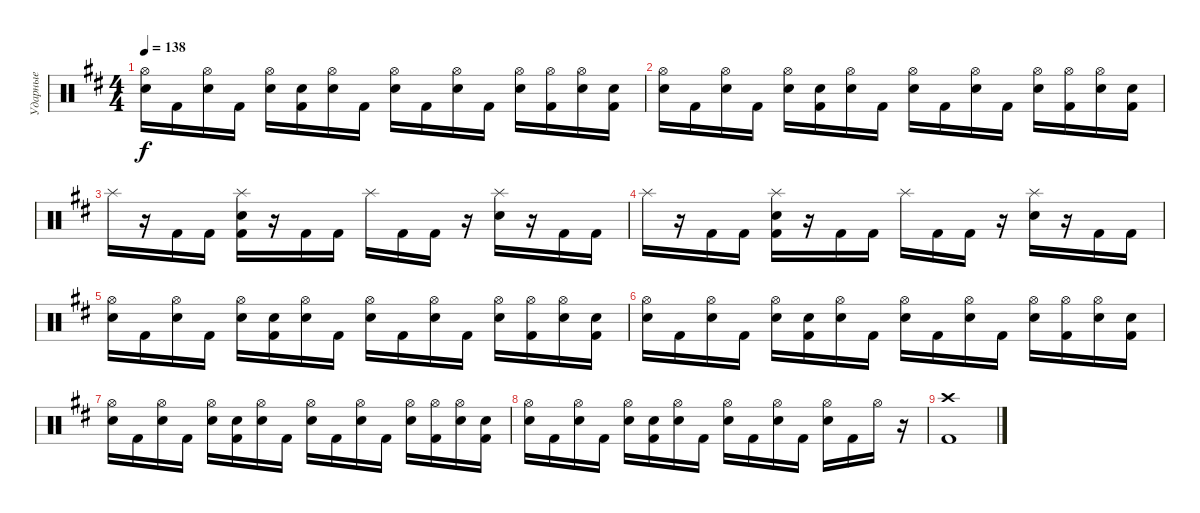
\track ("Ударные" "Ударные") {instrument percussion}
\staff {score}
\articulation defaults
\ts (4 4)
\tempo 138
\clef neutral
\ks bminor
("Electric Snare (hit)" "Hi-Hat (open)").16{dy f} "Kick (hit) 2".16 ("Electric Snare (hit)" "Hi-Hat (open)").16 "Kick (hit) 2".16 ("Electric Snare (hit)" "Hi-Hat (open)").16 ("Kick (hit) 2" "Electric Snare (hit)").16 ("Electric Snare (hit)" "Hi-Hat (open)").16 "Kick (hit) 2".16 ("Electric Snare (hit)" "Hi-Hat (open)").16 "Kick (hit) 2".16 ("Electric Snare (hit)" "Hi-Hat (open)").16 "Kick (hit) 2".16 ("Electric Snare (hit)" "Hi-Hat (open)").16 ("Kick (hit) 2" "Hi-Hat (open)").16 ("Electric Snare (hit)" "Hi-Hat (open)").16 ("Kick (hit) 2" "Electric Snare (hit)").16 |
("Electric Snare (hit)" "Hi-Hat (open)").16 "Kick (hit) 2".16 ("Electric Snare (hit)" "Hi-Hat (open)").16 "Kick (hit) 2".16 ("Electric Snare (hit)" "Hi-Hat (open)").16 ("Kick (hit) 2" "Electric Snare (hit)").16 ("Electric Snare (hit)" "Hi-Hat (open)").16 "Kick (hit) 2".16 ("Electric Snare (hit)" "Hi-Hat (open)").16 "Kick (hit) 2".16 ("Electric Snare (hit)" "Hi-Hat (open)").16 "Kick (hit) 2".16 ("Electric Snare (hit)" "Hi-Hat (open)").16 ("Kick (hit) 2" "Hi-Hat (open)").16 ("Electric Snare (hit)" "Hi-Hat (open)").16 ("Kick (hit) 2" "Electric Snare (hit)").16 |
"Splash (hit)".16 r.16 "Kick (hit) 2".16 "Kick (hit) 2".16 ("Splash (hit)" "Electric Snare (hit)" "Kick (hit) 2").16 r.16 "Kick (hit) 2".16 "Kick (hit) 2".16 "Splash (hit)".16 "Kick (hit) 2".16 "Kick (hit) 2".16 r.16 ("Splash (hit)" "Electric Snare (hit)").16 r.16 "Kick (hit) 2".16 "Kick (hit) 2".16 |
"Splash (hit)".16 r.16 "Kick (hit) 2".16 "Kick (hit) 2".16 ("Splash (hit)" "Electric Snare (hit)" "Kick (hit) 2").16 r.16 "Kick (hit) 2".16 "Kick (hit) 2".16 "Splash (hit)".16 "Kick (hit) 2".16 "Kick (hit) 2".16 r.16 ("Splash (hit)" "Electric Snare (hit)").16 r.16 "Kick (hit) 2".16 "Kick (hit) 2".16 |
("Electric Snare (hit)" "Hi-Hat (open)").16 "Kick (hit) 2".16 ("Electric Snare (hit)" "Hi-Hat (open)").16 "Kick (hit) 2".16 ("Electric Snare (hit)" "Hi-Hat (open)").16 ("Kick (hit) 2" "Electric Snare (hit)").16 ("Electric Snare (hit)" "Hi-Hat (open)").16 "Kick (hit) 2".16 ("Electric Snare (hit)" "Hi-Hat (open)").16 "Kick (hit) 2".16 ("Electric Snare (hit)" "Hi-Hat (open)").16 "Kick (hit) 2".16 ("Electric Snare (hit)" "Hi-Hat (open)").16 ("Kick (hit) 2" "Hi-Hat (open)").16 ("Electric Snare (hit)" "Hi-Hat (open)").16 ("Kick (hit) 2" "Electric Snare (hit)").16 |
("Electric Snare (hit)" "Hi-Hat (open)").16 "Kick (hit) 2".16 ("Electric Snare (hit)" "Hi-Hat (open)").16 "Kick (hit) 2".16 ("Electric Snare (hit)" "Hi-Hat (open)").16 ("Kick (hit) 2" "Electric Snare (hit)").16 ("Electric Snare (hit)" "Hi-Hat (open)").16 "Kick (hit) 2".16 ("Electric Snare (hit)" "Hi-Hat (open)").16 "Kick (hit) 2".16 ("Electric Snare (hit)" "Hi-Hat (open)").16 "Kick (hit) 2".16 ("Electric Snare (hit)" "Hi-Hat (open)").16 ("Kick (hit) 2" "Hi-Hat (open)").16 ("Electric Snare (hit)" "Hi-Hat (open)").16 ("Kick (hit) 2" "Electric Snare (hit)").16 |
("Electric Snare (hit)" "Hi-Hat (open)").16 "Kick (hit) 2".16 ("Electric Snare (hit)" "Hi-Hat (open)").16 "Kick (hit) 2".16 ("Electric Snare (hit)" "Hi-Hat (open)").16 ("Kick (hit) 2" "Electric Snare (hit)").16 ("Electric Snare (hit)" "Hi-Hat (open)").16 "Kick (hit) 2".16 ("Electric Snare (hit)" "Hi-Hat (open)").16 "Kick (hit) 2".16 ("Electric Snare (hit)" "Hi-Hat (open)").16 "Kick (hit) 2".16 ("Electric Snare (hit)" "Hi-Hat (open)").16 ("Kick (hit) 2" "Hi-Hat (open)").16 ("Electric Snare (hit)" "Hi-Hat (open)").16 ("Kick (hit) 2" "Electric Snare (hit)").16 |
("Electric Snare (hit)" "Hi-Hat (open)").16 "Kick (hit) 2".16 ("Electric Snare (hit)" "Hi-Hat (open)").16 "Kick (hit) 2".16 ("Electric Snare (hit)" "Hi-Hat (open)").16 ("Kick (hit) 2" "Electric Snare (hit)").16 ("Electric Snare (hit)" "Hi-Hat (open)").16 "Kick (hit) 2".16 ("Electric Snare (hit)" "Hi-Hat (open)").16 "Kick (hit) 2".16 ("Electric Snare (hit)" "Hi-Hat (open)").16 "Kick (hit) 2".16 ("Electric Snare (hit)" "Hi-Hat (open)").16 "Kick (hit) 2".16 "Hi-Hat (open)".16 r.16 |
("Kick (hit) 2" "Crash high (hit)").1
